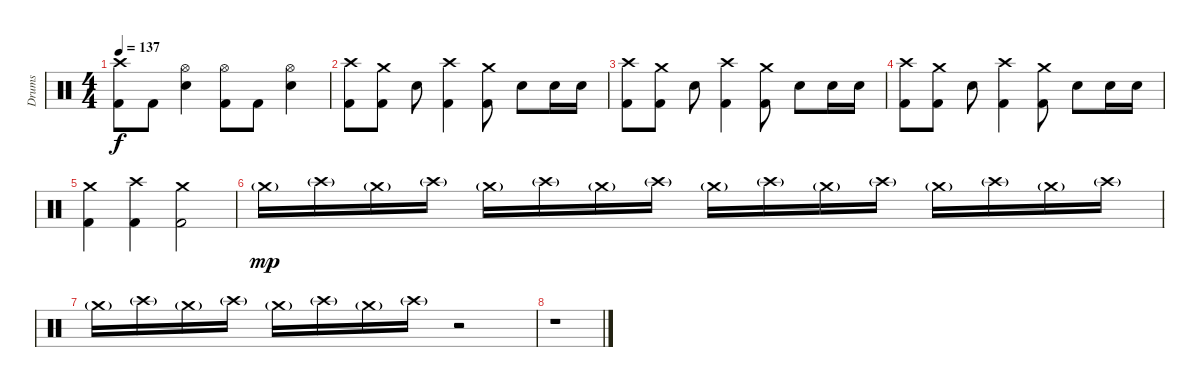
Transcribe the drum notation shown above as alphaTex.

\track ("Drums" "Drums") {instrument percussion}
\staff {score}
\articulation defaults
\ts (4 4)
\tempo 137
\clef neutral
\ks c
("Crash high (hit)" "Kick (hit) 2").8{dy f} "Kick (hit) 2".8 ("Hi-Hat (open)" "Snare (hit) 2").4 ("Hi-Hat (open)" "Kick (hit) 2").8 "Kick (hit) 2".8 ("Hi-Hat (open)" "Snare (hit) 2").4 |
("Crash high (hit)" "Kick (hit) 2").8 ("Crash medium (hit)" "Kick (hit) 2").8 "Snare (hit) 2".8 ("Crash high (hit)" "Kick (hit) 2").4 ("Crash medium (hit)" "Kick (hit) 2").8 "Snare (hit) 2".8 "Snare (hit) 2".16 "Snare (hit) 2".16 |
("Crash high (hit)" "Kick (hit) 2").8 ("Crash medium (hit)" "Kick (hit) 2").8 "Snare (hit) 2".8 ("Crash high (hit)" "Kick (hit) 2").4 ("Crash medium (hit)" "Kick (hit) 2").8 "Snare (hit) 2".8 "Snare (hit) 2".16 "Snare (hit) 2".16 |
("Crash high (hit)" "Kick (hit) 2").8 ("Crash medium (hit)" "Kick (hit) 2").8 "Snare (hit) 2".8 ("Crash high (hit)" "Kick (hit) 2").4 ("Crash medium (hit)" "Kick (hit) 2").8 "Snare (hit) 2".8 "Snare (hit) 2".16 "Snare (hit) 2".16 |
("Crash medium (hit)" "Kick (hit) 2").4 ("Crash high (hit)" "Kick (hit) 2").4 ("Crash medium (hit)" "Kick (hit) 2").2 |
"Crash medium (hit)"{g}.16{dy mp volume 8} "Crash high (hit)"{g}.16 "Crash medium (hit)"{g}.16 "Crash high (hit)"{g}.16 "Crash medium (hit)"{g}.16 "Crash high (hit)"{g}.16 "Crash medium (hit)"{g}.16 "Crash high (hit)"{g}.16 "Crash medium (hit)"{g}.16 "Crash high (hit)"{g}.16 "Crash medium (hit)"{g}.16 "Crash high (hit)"{g}.16 "Crash medium (hit)"{g}.16 "Crash high (hit)"{g}.16 "Crash medium (hit)"{g}.16 "Crash high (hit)"{g}.16 |
"Crash medium (hit)"{g}.16 "Crash high (hit)"{g}.16 "Crash medium (hit)"{g}.16{volume 10} "Crash high (hit)"{g}.16 "Crash medium (hit)"{g}.16{volume 12} "Crash high (hit)"{g}.16 "Crash medium (hit)"{g}.16{volume 14} "Crash high (hit)"{g}.16 r.2 |
r.1
